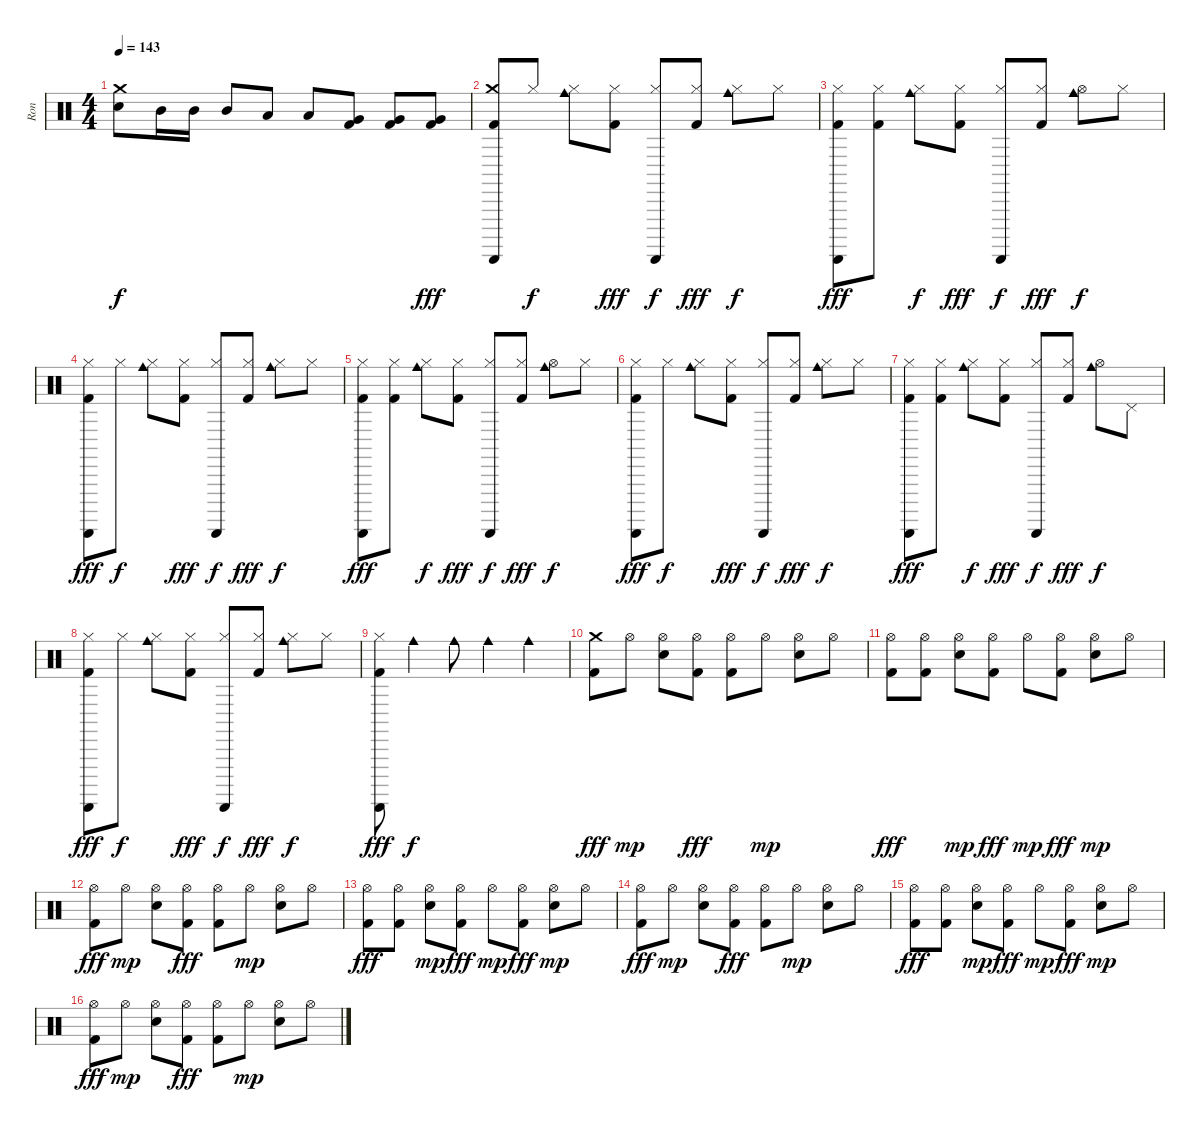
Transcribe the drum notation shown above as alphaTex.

\track ("Ron" "Ron") {instrument percussion}
\staff {score}
\articulation defaults
\ts (4 4)
\tempo 143
\clef neutral
\ks c
("Crash medium (hit)" "Snare (hit) 2").8{dy f} "Mid Tom (hit)".16 "Mid Tom (hit)".16 "Mid Tom (hit)".8 "Low Tom (hit)".8 "Low Tom (hit)".8 ("Very Low Tom (hit)" "Kick (hit) 2").8 ("Very Low Tom (hit)" "Kick (hit) 2").8 ("Very Low Tom (hit)" "Kick (hit) 2").8{dy fff} |
("Crash medium (hit)" "Kick (hit) 2" "Guiro (scrap-return)").8 "Hi-Hat (closed)".8{dy f} ("Hi-Hat (closed)" "Cowbell medium (hit)").8 ("Hi-Hat (closed)" "Kick (hit) 2").8{dy fff} ("Hi-Hat (closed)" "Guiro (scrap-return)").8{dy f} ("Hi-Hat (closed)" "Kick (hit) 2").8{dy fff} ("Hi-Hat (closed)" "Cowbell medium (hit)").8{dy f} "Hi-Hat (closed)".8 |
("Hi-Hat (closed)" "Kick (hit) 2" "Guiro (scrap-return)").8{dy fff} ("Hi-Hat (closed)" "Kick (hit) 2").8 ("Hi-Hat (closed)" "Cowbell medium (hit)").8{dy f} ("Hi-Hat (closed)" "Kick (hit) 2").8{dy fff} ("Hi-Hat (closed)" "Guiro (scrap-return)").8{dy f} ("Hi-Hat (closed)" "Kick (hit) 2").8{dy fff} ("Hi-Hat (open)" "Cowbell medium (hit)").8{dy f} "Hi-Hat (closed)".8 |
("Hi-Hat (closed)" "Kick (hit) 2" "Guiro (scrap-return)").8{dy fff} "Hi-Hat (closed)".8{dy f} ("Hi-Hat (closed)" "Cowbell medium (hit)").8 ("Hi-Hat (closed)" "Kick (hit) 2").8{dy fff} ("Hi-Hat (closed)" "Guiro (scrap-return)").8{dy f} ("Hi-Hat (closed)" "Kick (hit) 2").8{dy fff} ("Hi-Hat (closed)" "Cowbell medium (hit)").8{dy f} "Hi-Hat (closed)".8 |
("Hi-Hat (closed)" "Kick (hit) 2" "Guiro (scrap-return)").8{dy fff} ("Hi-Hat (closed)" "Kick (hit) 2").8 ("Hi-Hat (closed)" "Cowbell medium (hit)").8{dy f} ("Hi-Hat (closed)" "Kick (hit) 2").8{dy fff} ("Hi-Hat (closed)" "Guiro (scrap-return)").8{dy f} ("Hi-Hat (closed)" "Kick (hit) 2").8{dy fff} ("Hi-Hat (open)" "Cowbell medium (hit)").8{dy f} "Hi-Hat (closed)".8 |
("Hi-Hat (closed)" "Kick (hit) 2" "Guiro (scrap-return)").8{dy fff} "Hi-Hat (closed)".8{dy f} ("Hi-Hat (closed)" "Cowbell medium (hit)").8 ("Hi-Hat (closed)" "Kick (hit) 2").8{dy fff} ("Hi-Hat (closed)" "Guiro (scrap-return)").8{dy f} ("Hi-Hat (closed)" "Kick (hit) 2").8{dy fff} ("Hi-Hat (closed)" "Cowbell medium (hit)").8{dy f} "Hi-Hat (closed)".8 |
("Hi-Hat (closed)" "Kick (hit) 2" "Guiro (scrap-return)").8{dy fff} ("Hi-Hat (closed)" "Kick (hit) 2").8 ("Hi-Hat (closed)" "Cowbell medium (hit)").8{dy f} ("Hi-Hat (closed)" "Kick (hit) 2").8{dy fff} ("Hi-Hat (closed)" "Guiro (scrap-return)").8{dy f} ("Hi-Hat (closed)" "Kick (hit) 2").8{dy fff} ("Hi-Hat (open)" "Cowbell medium (hit)").8{dy f} "Pedal Hi-Hat (hit)".8 |
("Hi-Hat (closed)" "Kick (hit) 2" "Guiro (scrap-return)").8{dy fff} "Hi-Hat (closed)".8{dy f} ("Hi-Hat (closed)" "Cowbell medium (hit)").8 ("Hi-Hat (closed)" "Kick (hit) 2").8{dy fff} ("Hi-Hat (closed)" "Guiro (scrap-return)").8{dy f} ("Hi-Hat (closed)" "Kick (hit) 2").8{dy fff} ("Hi-Hat (closed)" "Cowbell medium (hit)").8{dy f} "Hi-Hat (closed)".8 |
("Hi-Hat (closed)" "Kick (hit) 2" "Guiro (scrap-return)").8{dy fff} "Cowbell medium (hit)".4{dy f} "Cowbell medium (hit)".8 "Cowbell medium (hit)".4 "Cowbell medium (hit)".4 |
("Crash medium (hit)" "Kick (hit) 2").8{dy fff} "Hi-Hat (open)".8{dy mp} ("Hi-Hat (open)" "Snare (hit) 2").8 ("Hi-Hat (open)" "Kick (hit) 2").8{dy fff} ("Hi-Hat (open)" "Kick (hit) 2").8 "Hi-Hat (open)".8{dy mp} ("Hi-Hat (open)" "Snare (hit) 2").8 "Hi-Hat (open)".8 |
("Hi-Hat (open)" "Kick (hit) 2").8{dy fff} ("Hi-Hat (open)" "Kick (hit) 2").8 ("Hi-Hat (open)" "Snare (hit) 2").8{dy mp} ("Hi-Hat (open)" "Kick (hit) 2").8{dy fff} "Hi-Hat (open)".8{dy mp} ("Hi-Hat (open)" "Kick (hit) 2").8{dy fff} ("Hi-Hat (open)" "Snare (hit) 2").8{dy mp} "Hi-Hat (open)".8 |
("Hi-Hat (open)" "Kick (hit) 2").8{dy fff} "Hi-Hat (open)".8{dy mp} ("Hi-Hat (open)" "Snare (hit) 2").8 ("Hi-Hat (open)" "Kick (hit) 2").8{dy fff} ("Hi-Hat (open)" "Kick (hit) 2").8 "Hi-Hat (open)".8{dy mp} ("Hi-Hat (open)" "Snare (hit) 2").8 "Hi-Hat (open)".8 |
("Hi-Hat (open)" "Kick (hit) 2").8{dy fff} ("Hi-Hat (open)" "Kick (hit) 2").8 ("Hi-Hat (open)" "Snare (hit) 2").8{dy mp} ("Hi-Hat (open)" "Kick (hit) 2").8{dy fff} "Hi-Hat (open)".8{dy mp} ("Hi-Hat (open)" "Kick (hit) 2").8{dy fff} ("Hi-Hat (open)" "Snare (hit) 2").8{dy mp} "Hi-Hat (open)".8 |
("Hi-Hat (open)" "Kick (hit) 2").8{dy fff} "Hi-Hat (open)".8{dy mp} ("Hi-Hat (open)" "Snare (hit) 2").8 ("Hi-Hat (open)" "Kick (hit) 2").8{dy fff} ("Hi-Hat (open)" "Kick (hit) 2").8 "Hi-Hat (open)".8{dy mp} ("Hi-Hat (open)" "Snare (hit) 2").8 "Hi-Hat (open)".8 |
("Hi-Hat (open)" "Kick (hit) 2").8{dy fff} ("Hi-Hat (open)" "Kick (hit) 2").8 ("Hi-Hat (open)" "Snare (hit) 2").8{dy mp} ("Hi-Hat (open)" "Kick (hit) 2").8{dy fff} "Hi-Hat (open)".8{dy mp} ("Hi-Hat (open)" "Kick (hit) 2").8{dy fff} ("Hi-Hat (open)" "Snare (hit) 2").8{dy mp} "Hi-Hat (open)".8 |
("Hi-Hat (open)" "Kick (hit) 2").8{dy fff} "Hi-Hat (open)".8{dy mp} ("Hi-Hat (open)" "Snare (hit) 2").8 ("Hi-Hat (open)" "Kick (hit) 2").8{dy fff} ("Hi-Hat (open)" "Kick (hit) 2").8 "Hi-Hat (open)".8{dy mp} ("Hi-Hat (open)" "Snare (hit) 2").8 "Hi-Hat (open)".8
